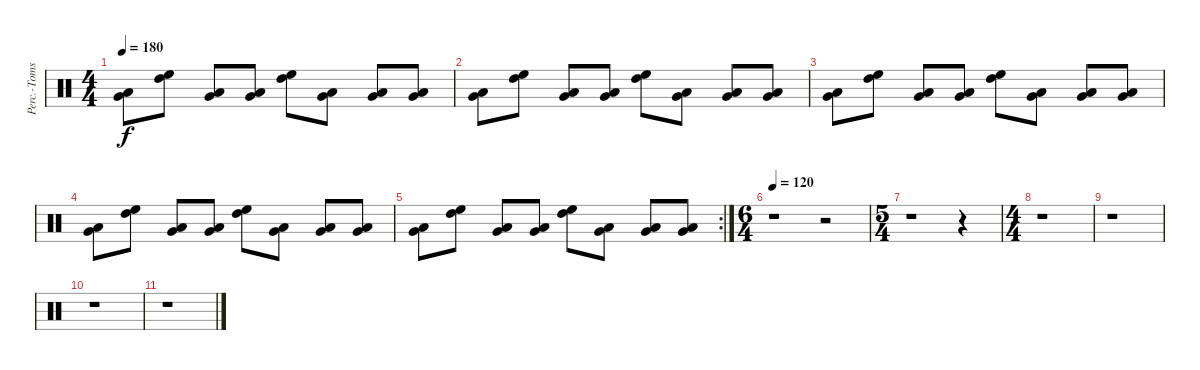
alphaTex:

\track ("Perc.-Toms 2" "Perc.-Toms") {instrument percussion}
\staff {score}
\articulation defaults
\ts (4 4)
\tempo 180
\clef neutral
\ks c
("Very Low Tom (hit)" "Low Floor Tom (hit)").8{dy f} ("High Floor Tom (hit)" "High Tom (hit)").8 ("Very Low Tom (hit)" "Low Floor Tom (hit)").8 ("Very Low Tom (hit)" "Low Floor Tom (hit)").8 ("High Floor Tom (hit)" "High Tom (hit)").8 ("Very Low Tom (hit)" "Low Floor Tom (hit)").8 ("Very Low Tom (hit)" "Low Floor Tom (hit)").8 ("Very Low Tom (hit)" "Low Floor Tom (hit)").8 |
("Very Low Tom (hit)" "Low Floor Tom (hit)").8 ("High Floor Tom (hit)" "High Tom (hit)").8 ("Very Low Tom (hit)" "Low Floor Tom (hit)").8 ("Very Low Tom (hit)" "Low Floor Tom (hit)").8 ("High Floor Tom (hit)" "High Tom (hit)").8 ("Very Low Tom (hit)" "Low Floor Tom (hit)").8 ("Very Low Tom (hit)" "Low Floor Tom (hit)").8 ("Very Low Tom (hit)" "Low Floor Tom (hit)").8 |
("Very Low Tom (hit)" "Low Floor Tom (hit)").8 ("High Floor Tom (hit)" "High Tom (hit)").8 ("Very Low Tom (hit)" "Low Floor Tom (hit)").8 ("Very Low Tom (hit)" "Low Floor Tom (hit)").8 ("High Floor Tom (hit)" "High Tom (hit)").8 ("Very Low Tom (hit)" "Low Floor Tom (hit)").8 ("Very Low Tom (hit)" "Low Floor Tom (hit)").8 ("Very Low Tom (hit)" "Low Floor Tom (hit)").8 |
("Very Low Tom (hit)" "Low Floor Tom (hit)").8 ("High Floor Tom (hit)" "High Tom (hit)").8 ("Very Low Tom (hit)" "Low Floor Tom (hit)").8 ("Very Low Tom (hit)" "Low Floor Tom (hit)").8 ("High Floor Tom (hit)" "High Tom (hit)").8 ("Very Low Tom (hit)" "Low Floor Tom (hit)").8 ("Very Low Tom (hit)" "Low Floor Tom (hit)").8 ("Very Low Tom (hit)" "Low Floor Tom (hit)").8 |
\rc 2
("Very Low Tom (hit)" "Low Floor Tom (hit)").8 ("High Floor Tom (hit)" "High Tom (hit)").8 ("Very Low Tom (hit)" "Low Floor Tom (hit)").8 ("Very Low Tom (hit)" "Low Floor Tom (hit)").8 ("High Floor Tom (hit)" "High Tom (hit)").8 ("Very Low Tom (hit)" "Low Floor Tom (hit)").8 ("Very Low Tom (hit)" "Low Floor Tom (hit)").8 ("Very Low Tom (hit)" "Low Floor Tom (hit)").8 |
\ts (6 4)
\tempo 120
r.1 r.2 |
\ts (5 4)
r.1 r.4 |
\ts (4 4)
r.1 |
r.1 |
r.1 |
r.1
